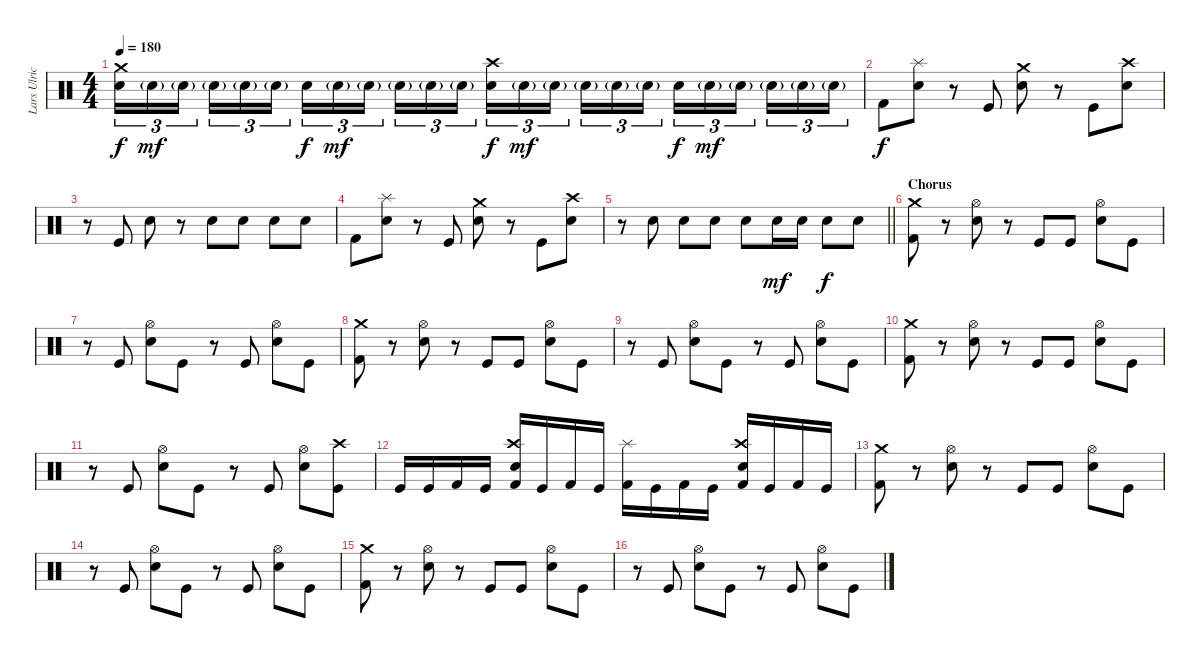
\track ("Lars Ulrich" "Lars Ulric") {instrument percussion}
\staff {score}
\articulation defaults
\ts (4 4)
\tempo 180
\clef neutral
\ks c
("Crash medium (hit)" "Electric Snare (hit)").16{tu (3 2) dy f} "Electric Snare (hit)"{g}.16{tu (3 2) dy mf} "Electric Snare (hit)"{g}.16{tu (3 2)} "Electric Snare (hit)"{g}.16{tu (3 2)} "Electric Snare (hit)"{g}.16{tu (3 2)} "Electric Snare (hit)"{g}.16{tu (3 2)} "Electric Snare (hit)".16{tu (3 2) dy f} "Electric Snare (hit)"{g}.16{tu (3 2) dy mf} "Electric Snare (hit)"{g}.16{tu (3 2)} "Electric Snare (hit)"{g}.16{tu (3 2)} "Electric Snare (hit)"{g}.16{tu (3 2)} "Electric Snare (hit)"{g}.16{tu (3 2)} ("Crash high (hit)" "Electric Snare (hit)").16{tu (3 2) dy f} "Electric Snare (hit)"{g}.16{tu (3 2) dy mf} "Electric Snare (hit)"{g}.16{tu (3 2)} "Electric Snare (hit)"{g}.16{tu (3 2)} "Electric Snare (hit)"{g}.16{tu (3 2)} "Electric Snare (hit)"{g}.16{tu (3 2)} "Electric Snare (hit)".16{tu (3 2) dy f} "Electric Snare (hit)"{g}.16{tu (3 2) dy mf} "Electric Snare (hit)"{g}.16{tu (3 2)} "Electric Snare (hit)"{g}.16{tu (3 2)} "Electric Snare (hit)"{g}.16{tu (3 2)} "Electric Snare (hit)"{g}.16{tu (3 2)} |
"Kick (hit) 2".8{dy f} ("Splash (hit)" "Electric Snare (hit)").8 r.8 "Kick (hit)".8 ("Crash medium (hit)" "Electric Snare (hit)").8 r.8 "Kick (hit)".8 ("Crash high (hit)" "Electric Snare (hit)").8 |
r.8 "Kick (hit)".8 "Electric Snare (hit)".8 r.8 "Electric Snare (hit)".8 "Electric Snare (hit)".8 "Electric Snare (hit)".8 "Electric Snare (hit)".8 |
"Kick (hit) 2".8 ("Splash (hit)" "Electric Snare (hit)").8 r.8 "Kick (hit)".8 ("Crash medium (hit)" "Electric Snare (hit)").8 r.8 "Kick (hit)".8 ("Crash high (hit)" "Electric Snare (hit)").8 |
\barLineRight lightlight
r.8 "Electric Snare (hit)".8 "Electric Snare (hit)".8 "Electric Snare (hit)".8 "Electric Snare (hit)".8 "Electric Snare (hit)".16{dy mf} "Electric Snare (hit)".16 "Electric Snare (hit)".8{dy f} "Electric Snare (hit)".8 |
\section ("" "Chorus ")
("Crash medium (hit)" "Kick (hit) 2").8 r.8 ("Hi-Hat (open)" "Electric Snare (hit)").8 r.8 "Kick (hit)".8 "Kick (hit)".8 ("Hi-Hat (open)" "Electric Snare (hit)").8 "Kick (hit)".8 |
r.8 "Kick (hit)".8 ("Hi-Hat (open)" "Electric Snare (hit)").8 "Kick (hit)".8 r.8 "Kick (hit)".8 ("Hi-Hat (open)" "Electric Snare (hit)").8 "Kick (hit)".8 |
("Crash medium (hit)" "Kick (hit) 2").8 r.8 ("Hi-Hat (open)" "Electric Snare (hit)").8 r.8 "Kick (hit)".8 "Kick (hit)".8 ("Hi-Hat (open)" "Electric Snare (hit)").8 "Kick (hit)".8 |
r.8 "Kick (hit)".8 ("Hi-Hat (open)" "Electric Snare (hit)").8 "Kick (hit)".8 r.8 "Kick (hit)".8 ("Hi-Hat (open)" "Electric Snare (hit)").8 "Kick (hit)".8 |
("Crash medium (hit)" "Kick (hit) 2").8 r.8 ("Hi-Hat (open)" "Electric Snare (hit)").8 r.8 "Kick (hit)".8 "Kick (hit)".8 ("Hi-Hat (open)" "Electric Snare (hit)").8 "Kick (hit)".8 |
r.8 "Kick (hit)".8 ("Hi-Hat (open)" "Electric Snare (hit)").8 "Kick (hit)".8 r.8 "Kick (hit)".8 ("Hi-Hat (open)" "Electric Snare (hit)").8 ("Crash high (hit)" "Kick (hit)").8 |
"Kick (hit)".16 "Kick (hit)".16 "Kick (hit) 2".16 "Kick (hit)".16 ("Crash high (hit)" "Electric Snare (hit)" "Kick (hit) 2").16 "Kick (hit)".16 "Kick (hit) 2".16 "Kick (hit)".16 ("Splash (hit)" "Kick (hit) 2").16 "Kick (hit)".16 "Kick (hit) 2".16 "Kick (hit)".16 ("Crash high (hit)" "Electric Snare (hit)" "Kick (hit) 2").16 "Kick (hit)".16 "Kick (hit) 2".16 "Kick (hit)".16 |
("Crash medium (hit)" "Kick (hit) 2").8 r.8 ("Hi-Hat (open)" "Electric Snare (hit)").8 r.8 "Kick (hit)".8 "Kick (hit)".8 ("Hi-Hat (open)" "Electric Snare (hit)").8 "Kick (hit)".8 |
r.8 "Kick (hit)".8 ("Hi-Hat (open)" "Electric Snare (hit)").8 "Kick (hit)".8 r.8 "Kick (hit)".8 ("Hi-Hat (open)" "Electric Snare (hit)").8 "Kick (hit)".8 |
("Crash medium (hit)" "Kick (hit) 2").8 r.8 ("Hi-Hat (open)" "Electric Snare (hit)").8 r.8 "Kick (hit)".8 "Kick (hit)".8 ("Hi-Hat (open)" "Electric Snare (hit)").8 "Kick (hit)".8 |
r.8 "Kick (hit)".8 ("Hi-Hat (open)" "Electric Snare (hit)").8 "Kick (hit)".8 r.8 "Kick (hit)".8 ("Hi-Hat (open)" "Electric Snare (hit)").8 "Kick (hit)".8
